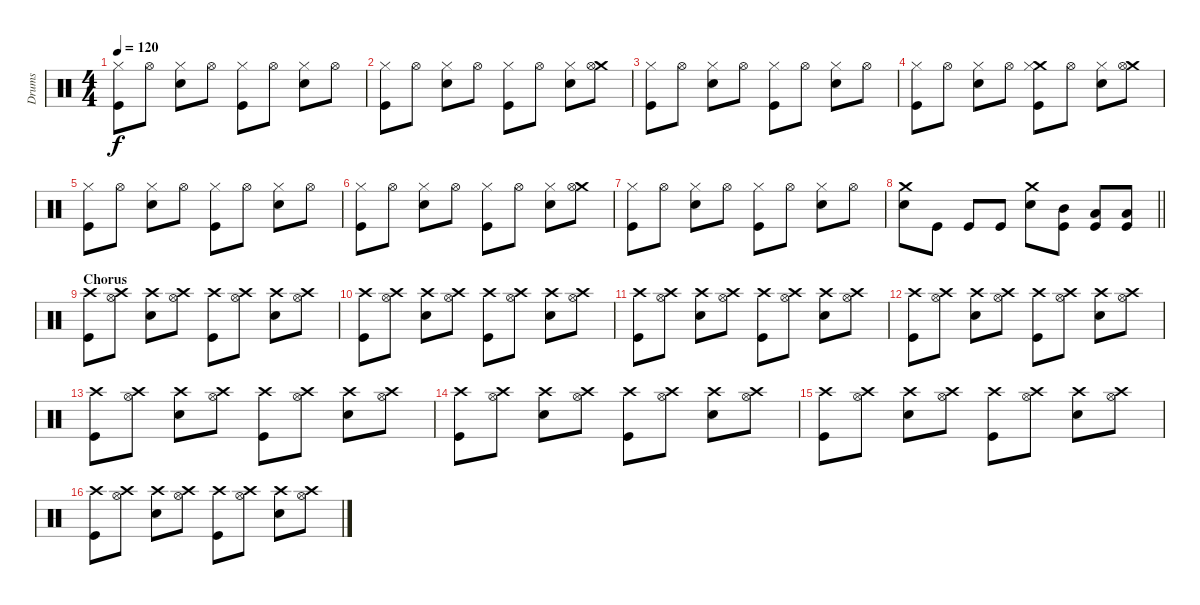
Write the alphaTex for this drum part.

\track ("Drums" "Drums") {instrument percussion}
\staff {score}
\articulation defaults
\ts (4 4)
\tempo 120
\clef neutral
\ks c
("Hi-Hat (closed)" "Kick (hit)").8{dy f} "Hi-Hat (open)".8 ("Snare (hit) 2" "Hi-Hat (closed)").8 "Hi-Hat (open)".8 ("Hi-Hat (closed)" "Kick (hit)").8 "Hi-Hat (open)".8 ("Snare (hit) 2" "Hi-Hat (closed)").8 "Hi-Hat (open)".8 |
("Hi-Hat (closed)" "Kick (hit)").8 "Hi-Hat (open)".8 ("Snare (hit) 2" "Hi-Hat (closed)").8 "Hi-Hat (open)".8 ("Hi-Hat (closed)" "Kick (hit)").8 "Hi-Hat (open)".8 ("Snare (hit) 2" "Hi-Hat (closed)").8 ("Crash medium (hit)" "Hi-Hat (open)").8 |
("Hi-Hat (closed)" "Kick (hit)").8 "Hi-Hat (open)".8 ("Snare (hit) 2" "Hi-Hat (closed)").8 "Hi-Hat (open)".8 ("Hi-Hat (closed)" "Kick (hit)").8 "Hi-Hat (open)".8 ("Snare (hit) 2" "Hi-Hat (closed)").8 "Hi-Hat (open)".8 |
("Hi-Hat (closed)" "Kick (hit)").8 "Hi-Hat (open)".8 ("Snare (hit) 2" "Hi-Hat (closed)").8 "Hi-Hat (open)".8 ("Crash medium (hit)" "Hi-Hat (closed)" "Kick (hit)").8 "Hi-Hat (open)".8 ("Snare (hit) 2" "Hi-Hat (closed)").8 ("Crash medium (hit)" "Hi-Hat (open)").8 |
("Hi-Hat (closed)" "Kick (hit)").8 "Hi-Hat (open)".8 ("Snare (hit) 2" "Hi-Hat (closed)").8 "Hi-Hat (open)".8 ("Hi-Hat (closed)" "Kick (hit)").8 "Hi-Hat (open)".8 ("Snare (hit) 2" "Hi-Hat (closed)").8 "Hi-Hat (open)".8 |
("Hi-Hat (closed)" "Kick (hit)").8 "Hi-Hat (open)".8 ("Snare (hit) 2" "Hi-Hat (closed)").8 "Hi-Hat (open)".8 ("Hi-Hat (closed)" "Kick (hit)").8 "Hi-Hat (open)".8 ("Snare (hit) 2" "Hi-Hat (closed)").8 ("Crash medium (hit)" "Hi-Hat (open)").8 |
("Hi-Hat (closed)" "Kick (hit)").8 "Hi-Hat (open)".8 ("Snare (hit) 2" "Hi-Hat (closed)").8 "Hi-Hat (open)".8 ("Hi-Hat (closed)" "Kick (hit)").8 "Hi-Hat (open)".8 ("Snare (hit) 2" "Hi-Hat (closed)").8 "Hi-Hat (open)".8 |
\barLineRight lightlight
("Crash medium (hit)" "Snare (hit) 2").8 "Kick (hit)".8 "Kick (hit)".8 "Kick (hit)".8 ("Crash medium (hit)" "Snare (hit) 2").8 ("Mid Tom (hit)" "Kick (hit)").8 ("Low Tom (hit)" "Kick (hit)").8 ("Low Tom (hit)" "Kick (hit)").8 |
\section ("" "Chorus")
("Crash high (hit)" "Kick (hit)").8 ("Crash high (hit)" "Hi-Hat (open)").8 ("Crash high (hit)" "Snare (hit) 2").8 ("Crash high (hit)" "Hi-Hat (open)").8 ("Crash high (hit)" "Kick (hit)").8 ("Crash high (hit)" "Hi-Hat (open)").8 ("Crash high (hit)" "Snare (hit) 2").8 ("Crash high (hit)" "Hi-Hat (open)").8 |
("Crash high (hit)" "Kick (hit)").8 ("Crash high (hit)" "Hi-Hat (open)").8 ("Crash high (hit)" "Snare (hit) 2").8 ("Crash high (hit)" "Hi-Hat (open)").8 ("Crash high (hit)" "Kick (hit)").8 ("Crash high (hit)" "Hi-Hat (open)").8 ("Crash high (hit)" "Snare (hit) 2").8 ("Crash high (hit)" "Hi-Hat (open)").8 |
("Crash high (hit)" "Kick (hit)").8 ("Crash high (hit)" "Hi-Hat (open)").8 ("Crash high (hit)" "Snare (hit) 2").8 ("Crash high (hit)" "Hi-Hat (open)").8 ("Crash high (hit)" "Kick (hit)").8 ("Crash high (hit)" "Hi-Hat (open)").8 ("Crash high (hit)" "Snare (hit) 2").8 ("Crash high (hit)" "Hi-Hat (open)").8 |
("Crash high (hit)" "Kick (hit)").8 ("Crash high (hit)" "Hi-Hat (open)").8 ("Crash high (hit)" "Snare (hit) 2").8 ("Crash high (hit)" "Hi-Hat (open)").8 ("Crash high (hit)" "Kick (hit)").8 ("Crash high (hit)" "Hi-Hat (open)").8 ("Crash high (hit)" "Snare (hit) 2").8 ("Crash high (hit)" "Hi-Hat (open)").8 |
("Crash high (hit)" "Kick (hit)").8 ("Crash high (hit)" "Hi-Hat (open)").8 ("Crash high (hit)" "Snare (hit) 2").8 ("Crash high (hit)" "Hi-Hat (open)").8 ("Crash high (hit)" "Kick (hit)").8 ("Crash high (hit)" "Hi-Hat (open)").8 ("Crash high (hit)" "Snare (hit) 2").8 ("Crash high (hit)" "Hi-Hat (open)").8 |
("Crash high (hit)" "Kick (hit)").8 ("Crash high (hit)" "Hi-Hat (open)").8 ("Crash high (hit)" "Snare (hit) 2").8 ("Crash high (hit)" "Hi-Hat (open)").8 ("Crash high (hit)" "Kick (hit)").8 ("Crash high (hit)" "Hi-Hat (open)").8 ("Crash high (hit)" "Snare (hit) 2").8 ("Crash high (hit)" "Hi-Hat (open)").8 |
("Crash high (hit)" "Kick (hit)").8 ("Crash high (hit)" "Hi-Hat (open)").8 ("Crash high (hit)" "Snare (hit) 2").8 ("Crash high (hit)" "Hi-Hat (open)").8 ("Crash high (hit)" "Kick (hit)").8 ("Crash high (hit)" "Hi-Hat (open)").8 ("Crash high (hit)" "Snare (hit) 2").8 ("Crash high (hit)" "Hi-Hat (open)").8 |
("Crash high (hit)" "Kick (hit)").8 ("Crash high (hit)" "Hi-Hat (open)").8 ("Crash high (hit)" "Snare (hit) 2").8 ("Crash high (hit)" "Hi-Hat (open)").8 ("Crash high (hit)" "Kick (hit)").8 ("Crash high (hit)" "Hi-Hat (open)").8 ("Crash high (hit)" "Snare (hit) 2").8 ("Crash high (hit)" "Hi-Hat (open)").8
